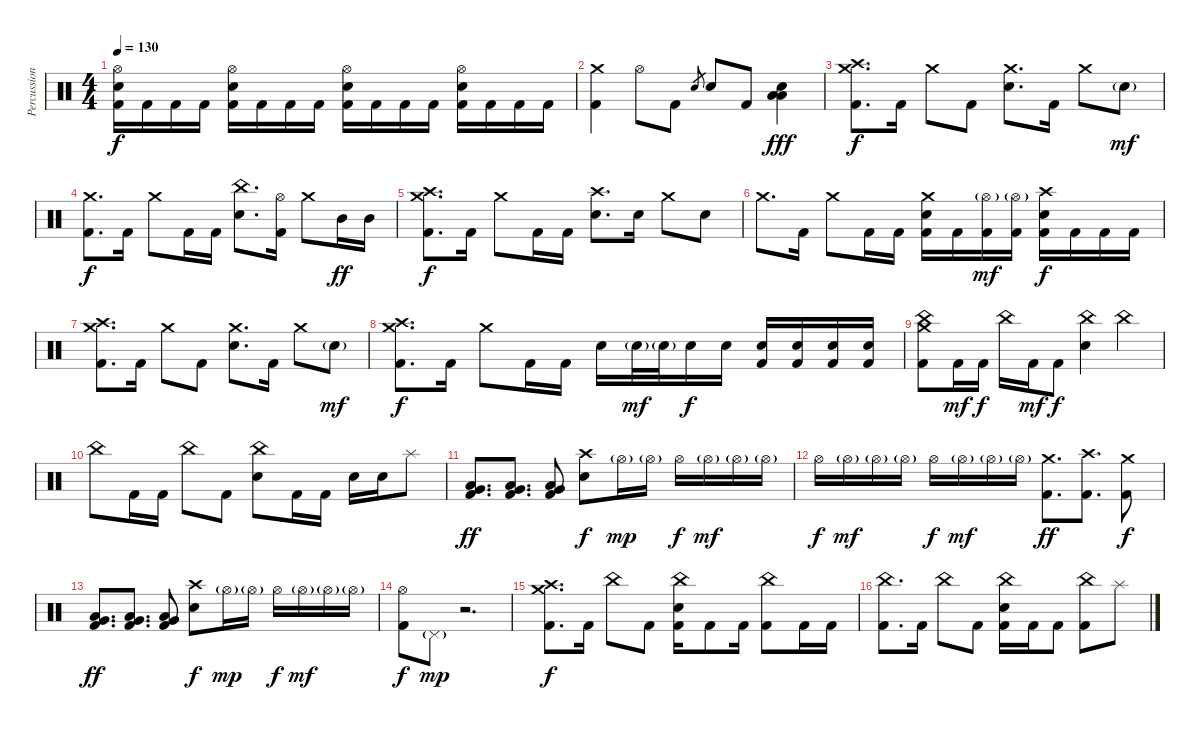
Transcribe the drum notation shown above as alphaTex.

\track ("Percussion" "Percussion") {instrument percussion}
\staff {score}
\articulation defaults
\ts (4 4)
\tempo 130
\clef neutral
\ks c
("Hi-Hat (open)" "Electric Snare (hit)" "Kick (hit) 2").16{dy f} "Kick (hit) 2".16 "Kick (hit) 2".16 "Kick (hit) 2".16 ("Hi-Hat (open)" "Electric Snare (hit)" "Kick (hit) 2").16 "Kick (hit) 2".16 "Kick (hit) 2".16 "Kick (hit) 2".16 ("Hi-Hat (open)" "Electric Snare (hit)" "Kick (hit) 2").16 "Kick (hit) 2".16 "Kick (hit) 2".16 "Kick (hit) 2".16 ("Hi-Hat (open)" "Electric Snare (hit)" "Kick (hit) 2").16 "Kick (hit) 2".16 "Kick (hit) 2".16 "Kick (hit) 2".16 |
("Crash medium (hit)" "Kick (hit) 2").4 "Hi-Hat (open)".8 "Kick (hit) 2".8 "Electric Snare (hit)".8{gr} "Electric Snare (hit)".8 "Kick (hit) 2".8 ("Low Tom (hit)" "Low Floor Tom (hit)" "Electric Snare (hit)").4{dy fff} |
("Crash high (hit)" "Crash medium (hit)" "Kick (hit) 2").8{d dy f} "Kick (hit) 2".16 "Crash medium (hit)".8 "Kick (hit) 2".8 ("Crash medium (hit)" "Electric Snare (hit)").8{d} "Kick (hit) 2".16 "Crash medium (hit)".8 "Electric Snare (hit)"{g}.8{dy mf} |
("Crash medium (hit)" "Kick (hit) 2").8{d dy f} "Kick (hit) 2".16 "Crash medium (hit)".8 "Kick (hit) 2".16 "Kick (hit) 2".16 ("China (hit)" "Electric Snare (hit)").8{d} ("Hi-Hat (open)" "Kick (hit) 2").16 "Crash medium (hit)".8 "Mid Tom (hit)".16{dy ff} "Mid Tom (hit)".16 |
("Crash high (hit)" "Crash medium (hit)" "Kick (hit) 2").8{d dy f} "Kick (hit) 2".16 "Crash medium (hit)".8 "Kick (hit) 2".16 "Kick (hit) 2".16 ("Crash high (hit)" "Electric Snare (hit)").8{d} "Electric Snare (hit)".16 "Crash medium (hit)".8 "Electric Snare (hit)".8 |
"Crash medium (hit)".8{d} "Kick (hit) 2".16 "Crash medium (hit)".8 "Kick (hit) 2".16 "Kick (hit) 2".16 ("Crash medium (hit)" "Electric Snare (hit)" "Kick (hit) 2").16 "Kick (hit) 2".16 ("Hi-Hat (open)"{g} "Kick (hit) 2").16{dy mf} ("Hi-Hat (open)"{g} "Kick (hit) 2").16 ("Crash high (hit)" "Electric Snare (hit)" "Kick (hit) 2").16{dy f} "Kick (hit) 2".16 "Kick (hit) 2".16 "Kick (hit) 2".16 |
("Crash high (hit)" "Crash medium (hit)" "Kick (hit) 2").8{d} "Kick (hit) 2".16 "Crash medium (hit)".8 "Kick (hit) 2".8 ("Crash medium (hit)" "Electric Snare (hit)").8{d} "Kick (hit) 2".16 "Crash medium (hit)".8 "Electric Snare (hit)"{g}.8{dy mf} |
("Crash high (hit)" "Crash medium (hit)" "Kick (hit) 2").8{d dy f} "Kick (hit) 2".16 "Crash medium (hit)".8 "Kick (hit) 2".16 "Kick (hit) 2".16 "Electric Snare (hit)".16 "Electric Snare (hit)"{g}.32{dy mf} "Electric Snare (hit)"{g}.32 "Electric Snare (hit)".16{dy f} "Electric Snare (hit)".16 ("Electric Snare (hit)" "Kick (hit) 2").16 ("Electric Snare (hit)" "Kick (hit) 2").16 ("Electric Snare (hit)" "Kick (hit) 2").16 ("Electric Snare (hit)" "Kick (hit) 2").16 |
("China (hit)" "Crash medium (hit)" "Kick (hit) 2").8 "Kick (hit) 2".16{dy mf} "Kick (hit) 2".16{dy f} "China (hit)".16 "Kick (hit) 2".16{dy mf} "Kick (hit) 2".8{dy f} ("China (hit)" "Electric Snare (hit)").4 "China (hit)".4 |
"China (hit)".8 "Kick (hit) 2".16 "Kick (hit) 2".16 "China (hit)".8 "Kick (hit) 2".8 ("China (hit)" "Electric Snare (hit)").8 "Kick (hit) 2".16 "Kick (hit) 2".16 "Electric Snare (hit)".16 "Electric Snare (hit)".16 "Splash (hit)".8 |
("Low Tom (hit)" "Very Low Tom (hit)" "Kick (hit) 2").8{d dy ff} ("Low Tom (hit)" "Very Low Tom (hit)" "Kick (hit) 2").8{d} ("Low Tom (hit)" "Very Low Tom (hit)" "Kick (hit) 2").8 ("Crash high (hit)" "Electric Snare (hit)").8{dy f} "Hi-Hat (open)"{g}.16{dy mp} "Hi-Hat (open)"{g}.16 "Hi-Hat (open)".16{dy f} "Hi-Hat (open)"{g}.16{dy mf} "Hi-Hat (open)"{g}.16 "Hi-Hat (open)"{g}.16 |
"Hi-Hat (open)".16{dy f} "Hi-Hat (open)"{g}.16{dy mf} "Hi-Hat (open)"{g}.16 "Hi-Hat (open)"{g}.16 "Hi-Hat (open)".16{dy f} "Hi-Hat (open)"{g}.16{dy mf} "Hi-Hat (open)"{g}.16 "Hi-Hat (open)"{g}.16 ("Crash medium (hit)" "Kick (hit) 2").8{d dy ff} ("Crash high (hit)" "Kick (hit) 2").8{d} ("Crash medium (hit)" "Kick (hit) 2").8{dy f} |
("Low Tom (hit)" "Very Low Tom (hit)" "Kick (hit) 2").8{d dy ff} ("Low Tom (hit)" "Very Low Tom (hit)" "Kick (hit) 2").8{d} ("Low Tom (hit)" "Very Low Tom (hit)" "Kick (hit) 2").8 ("Crash high (hit)" "Electric Snare (hit)").8{dy f} "Hi-Hat (open)"{g}.16{dy mp} "Hi-Hat (open)"{g}.16 "Hi-Hat (open)".16{dy f} "Hi-Hat (open)"{g}.16{dy mf} "Hi-Hat (open)"{g}.16 "Hi-Hat (open)"{g}.16 |
("Hi-Hat (open)" "Kick (hit) 2").8{dy f} "Pedal Hi-Hat (hit)"{g}.8{dy mp} r.2{d} |
("Crash medium (hit)" "Crash high (hit)" "Kick (hit) 2").8{d dy f} "Kick (hit) 2".16 "China (hit)".8 "Kick (hit) 2".8 ("China (hit)" "Electric Snare (hit)" "Kick (hit) 2").16 "Kick (hit) 2".8 "Kick (hit) 2".16 ("China (hit)" "Kick (hit) 2").8 "Kick (hit) 2".16 "Kick (hit) 2".16 |
("China (hit)" "Kick (hit) 2").8{d} "Kick (hit) 2".16 "China (hit)".8 "Kick (hit) 2".8 ("China (hit)" "Electric Snare (hit)" "Kick (hit) 2").16 "Kick (hit) 2".16 "Kick (hit) 2".8 ("China (hit)" "Kick (hit) 2").8 "Splash (hit)".8
